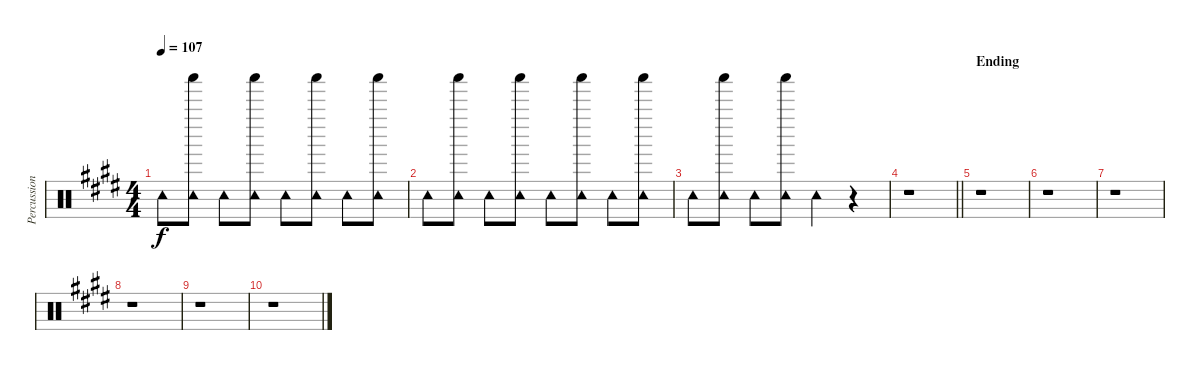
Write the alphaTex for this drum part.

\track ("Percussion" "Percussion") {instrument percussion}
\staff {score}
\articulation defaults
\ts (4 4)
\tempo 107
\clef neutral
\ks e "Tambourine (hit)".8{dy f}
("Shaker (hit)" "Tambourine (hit)").8 "Tambourine (hit)".8 ("Shaker (hit)" "Tambourine (hit)").8 "Tambourine (hit)".8 ("Shaker (hit)" "Tambourine (hit)").8 "Tambourine (hit)".8 ("Shaker (hit)" "Tambourine (hit)").8 |
"Tambourine (hit)".8 ("Shaker (hit)" "Tambourine (hit)").8 "Tambourine (hit)".8 ("Shaker (hit)" "Tambourine (hit)").8 "Tambourine (hit)".8 ("Shaker (hit)" "Tambourine (hit)").8 "Tambourine (hit)".8 ("Shaker (hit)" "Tambourine (hit)").8 |
"Tambourine (hit)".8 ("Shaker (hit)" "Tambourine (hit)").8 "Tambourine (hit)".8 ("Shaker (hit)" "Tambourine (hit)").8 "Tambourine (hit)".4 r.4 |
\barLineRight lightlight
r.1 |
\section ("" "Ending")
r.1 |
r.1 |
r.1 |
r.1 |
r.1 |
r.1
